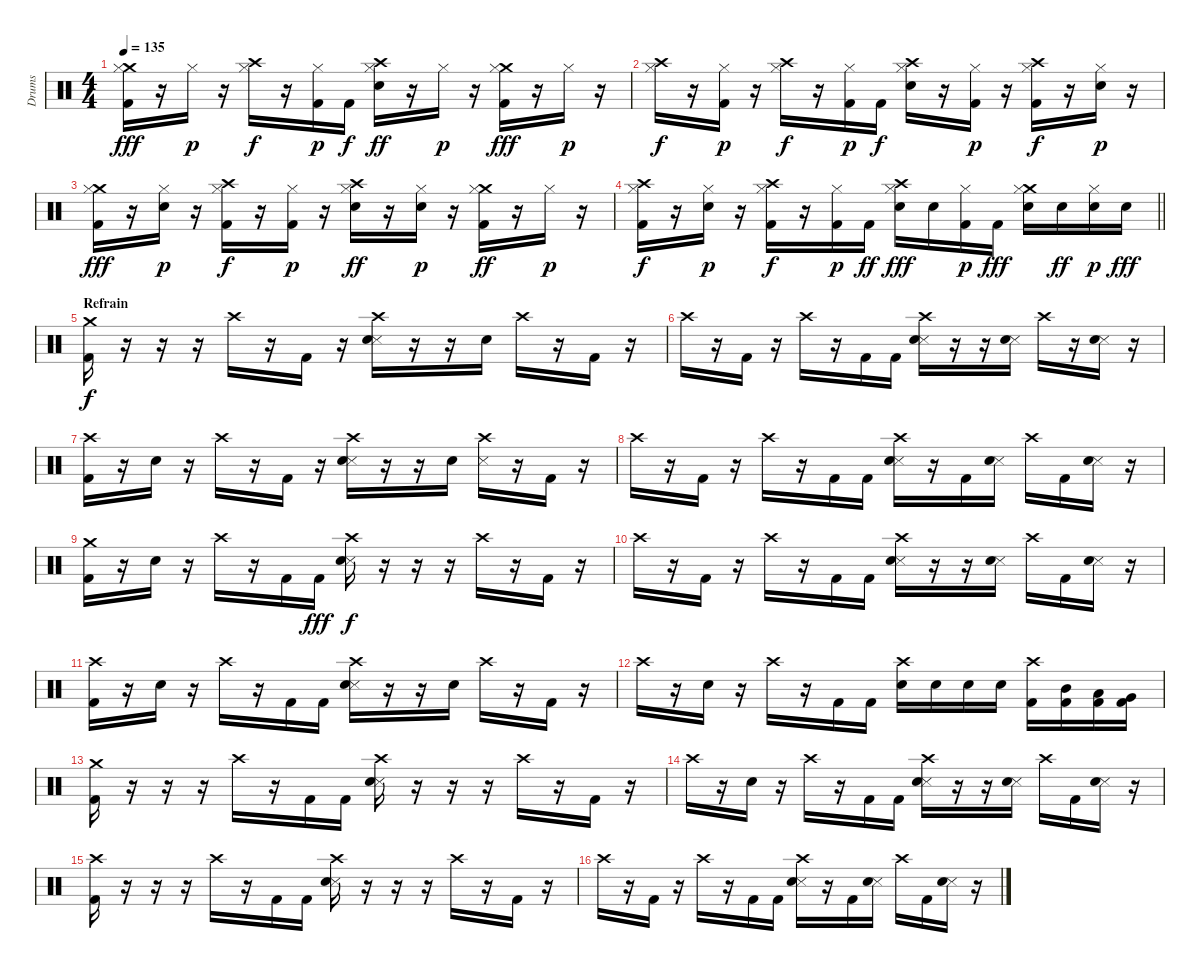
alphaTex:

\track ("Drums" "Drums") {instrument percussion}
\staff {score}
\articulation defaults
\ts (4 4)
\tempo 135
\clef neutral
\ks c
("Crash medium (hit)" "Kick (hit) 2" "Hi-Hat (closed)").16{dy fff} r.16 "Hi-Hat (closed)".16{dy p} r.16 ("Crash high (hit)" "Hi-Hat (closed)").16{dy f} r.16 ("Kick (hit) 2" "Hi-Hat (closed)").16{dy p} "Kick (hit) 2".16{dy f} ("Crash high (hit)" "Electric Snare (hit)" "Hi-Hat (closed)").16{dy ff} r.16 "Hi-Hat (closed)".16{dy p} r.16 ("Crash medium (hit)" "Kick (hit) 2" "Hi-Hat (closed)").16{dy fff} r.16 "Hi-Hat (closed)".16{dy p} r.16 |
("Crash high (hit)" "Hi-Hat (closed)").16{dy f} r.16 ("Kick (hit) 2" "Hi-Hat (closed)").16{dy p} r.16 ("Crash high (hit)" "Hi-Hat (closed)").16{dy f} r.16 ("Kick (hit) 2" "Hi-Hat (closed)").16{dy p} "Kick (hit) 2".16{dy f} ("Crash high (hit)" "Electric Snare (hit)" "Hi-Hat (closed)").16 r.16 ("Kick (hit) 2" "Hi-Hat (closed)").16{dy p} r.16 ("Crash high (hit)" "Kick (hit) 2" "Hi-Hat (closed)").16{dy f} r.16 ("Electric Snare (hit)" "Hi-Hat (closed)").16{dy p} r.16 |
("Crash medium (hit)" "Kick (hit) 2" "Hi-Hat (closed)").16{dy fff} r.16 ("Electric Snare (hit)" "Hi-Hat (closed)").16{dy p} r.16 ("Crash high (hit)" "Kick (hit) 2" "Hi-Hat (closed)").16{dy f} r.16 ("Kick (hit) 2" "Hi-Hat (closed)").16{dy p} r.16 ("Crash high (hit)" "Electric Snare (hit)" "Hi-Hat (closed)").16{dy ff} r.16 ("Electric Snare (hit)" "Hi-Hat (closed)").16{dy p} r.16 ("Crash medium (hit)" "Kick (hit) 2" "Hi-Hat (closed)").16{dy ff} r.16 "Hi-Hat (closed)".16{dy p} r.16 |
\barLineRight lightlight
("Crash high (hit)" "Kick (hit) 2" "Hi-Hat (closed)").16{dy f} r.16 ("Electric Snare (hit)" "Hi-Hat (closed)").16{dy p} r.16 ("Crash high (hit)" "Kick (hit) 2" "Hi-Hat (closed)").16{dy f} r.16 ("Kick (hit) 2" "Hi-Hat (closed)").16{dy p} "Kick (hit) 2".16{dy ff} ("Crash high (hit)" "Electric Snare (hit)" "Hi-Hat (closed)").16{dy fff} "Electric Snare (hit)".16 ("Kick (hit) 2" "Hi-Hat (closed)").16{dy p} "Kick (hit) 2".16{dy fff} ("Crash medium (hit)" "Electric Snare (hit)" "Hi-Hat (closed)").16 "Electric Snare (hit)".16{dy ff} ("Electric Snare (hit)" "Hi-Hat (closed)").16{dy p} "Electric Snare (hit)".16{dy fff} |
\section ("" "Refrain")
("Crash medium (hit)" "Kick (hit) 2").16{dy f} r.16 r.16 r.16 "Crash high (hit)".16 r.16 "Kick (hit) 2".16 r.16 ("Crash high (hit)" "Snare (side stick) 3" "Electric Snare (hit)").16 r.16 r.16 "Electric Snare (hit)".16 "Crash high (hit)".16 r.16 "Kick (hit) 2".16 r.16 |
"Crash high (hit)".16 r.16 "Kick (hit) 2".16 r.16 "Crash high (hit)".16 r.16 "Kick (hit) 2".16 "Kick (hit) 2".16 ("Crash high (hit)" "Snare (side stick) 3" "Electric Snare (hit)").16 r.16 r.16 ("Snare (side stick) 3" "Electric Snare (hit)").16 "Crash high (hit)".16 r.16 ("Snare (side stick) 3" "Electric Snare (hit)").16 r.16 |
("Kick (hit) 2" "Crash high (hit)").16 r.16 "Electric Snare (hit)".16 r.16 "Crash high (hit)".16 r.16 "Kick (hit) 2".16 r.16 ("Snare (side stick) 3" "Electric Snare (hit)" "Crash high (hit)").16 r.16 r.16 "Electric Snare (hit)".16 ("Snare (side stick) 3" "Crash high (hit)").16 r.16 "Kick (hit) 2".16 r.16 |
"Crash high (hit)".16 r.16 "Kick (hit) 2".16 r.16 "Crash high (hit)".16 r.16 "Kick (hit) 2".16 "Kick (hit) 2".16 ("Snare (side stick) 3" "Electric Snare (hit)" "Crash high (hit)").16 r.16 "Kick (hit) 2".16 ("Snare (side stick) 3" "Electric Snare (hit)").16 "Crash high (hit)".16 "Kick (hit) 2".16 ("Snare (side stick) 3" "Electric Snare (hit)").16 r.16 |
("Crash medium (hit)" "Kick (hit) 2").16 r.16 "Electric Snare (hit)".16 r.16 "Crash high (hit)".16 r.16 "Kick (hit) 2".16 "Kick (hit) 2".16{dy fff} ("Crash high (hit)" "Snare (side stick) 3" "Electric Snare (hit)").16{dy f} r.16 r.16 r.16 "Crash high (hit)".16 r.16 "Kick (hit) 2".16 r.16 |
"Crash high (hit)".16 r.16 "Kick (hit) 2".16 r.16 "Crash high (hit)".16 r.16 "Kick (hit) 2".16 "Kick (hit) 2".16 ("Crash high (hit)" "Snare (side stick) 3" "Electric Snare (hit)").16 r.16 r.16 ("Snare (side stick) 3" "Electric Snare (hit)").16 "Crash high (hit)".16 "Kick (hit) 2".16 ("Snare (side stick) 3" "Electric Snare (hit)").16 r.16 |
("Kick (hit) 2" "Crash high (hit)").16 r.16 "Electric Snare (hit)".16 r.16 "Crash high (hit)".16 r.16 "Kick (hit) 2".16 "Kick (hit) 2".16 ("Snare (side stick) 3" "Electric Snare (hit)" "Crash high (hit)").16 r.16 r.16 "Electric Snare (hit)".16 "Crash high (hit)".16 r.16 "Kick (hit) 2".16 r.16 |
"Crash high (hit)".16 r.16 "Electric Snare (hit)".16 r.16 "Crash high (hit)".16 r.16 "Kick (hit) 2".16 "Kick (hit) 2".16 ("Electric Snare (hit)" "Crash high (hit)").16 "Electric Snare (hit)".16 "Electric Snare (hit)".16 "Electric Snare (hit)".16 ("Kick (hit) 2" "Crash high (hit)").16 ("Mid Tom (hit)" "Kick (hit) 2").16 ("Low Tom (hit)" "Kick (hit) 2").16 ("Very Low Tom (hit)" "Kick (hit) 2").16 |
("Crash medium (hit)" "Kick (hit) 2").16 r.16 r.16 r.16 "Crash high (hit)".16 r.16 "Kick (hit) 2".16 "Kick (hit) 2".16 ("Crash high (hit)" "Snare (side stick) 3" "Electric Snare (hit)").16 r.16 r.16 r.16 "Crash high (hit)".16 r.16 "Kick (hit) 2".16 r.16 |
"Crash high (hit)".16 r.16 "Electric Snare (hit)".16 r.16 "Crash high (hit)".16 r.16 "Kick (hit) 2".16 "Kick (hit) 2".16 ("Crash high (hit)" "Snare (side stick) 3" "Electric Snare (hit)").16 r.16 r.16 ("Snare (side stick) 3" "Electric Snare (hit)").16 "Crash high (hit)".16 "Kick (hit) 2".16 ("Snare (side stick) 3" "Electric Snare (hit)").16 r.16 |
("Kick (hit) 2" "Crash high (hit)").16 r.16 r.16 r.16 "Crash high (hit)".16 r.16 "Kick (hit) 2".16 "Kick (hit) 2".16 ("Snare (side stick) 3" "Electric Snare (hit)" "Crash high (hit)").16 r.16 r.16 r.16 "Crash high (hit)".16 r.16 "Kick (hit) 2".16 r.16 |
"Crash high (hit)".16 r.16 "Kick (hit) 2".16 r.16 "Crash high (hit)".16 r.16 "Kick (hit) 2".16 "Kick (hit) 2".16 ("Snare (side stick) 3" "Electric Snare (hit)" "Crash high (hit)").16 r.16 "Kick (hit) 2".16 ("Snare (side stick) 3" "Electric Snare (hit)").16 "Crash high (hit)".16 "Kick (hit) 2".16 ("Snare (side stick) 3" "Electric Snare (hit)").16 r.16
